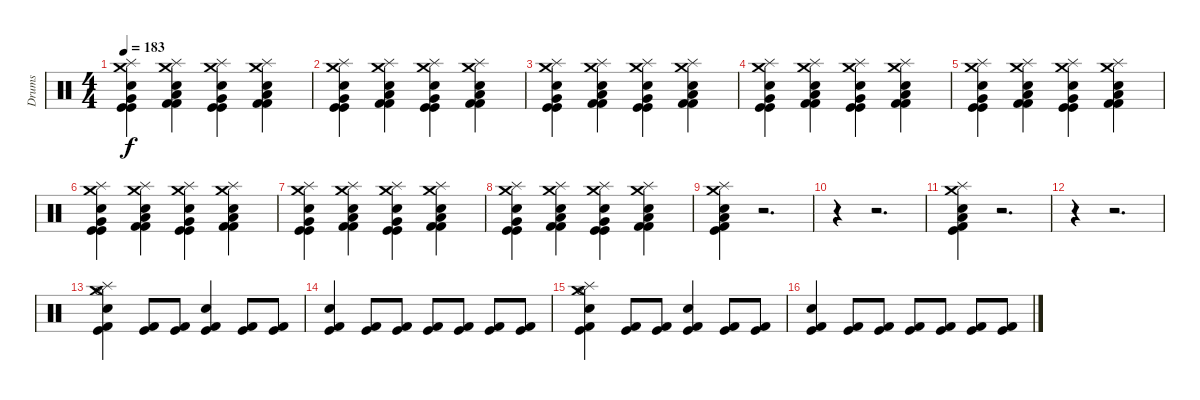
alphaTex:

\track ("Drums" "Drums") {instrument percussion}
\staff {score}
\articulation defaults
\ts (4 4)
\tempo 183
\clef neutral
\ks c
("Crash medium (hit)" "Kick (hit)" "Kick (hit)" "Electric Snare (hit)" "Very Low Tom (hit)" "Splash (hit)").4{dy f} ("Crash medium (hit)" "Kick (hit) 2" "Kick (hit) 2" "Electric Snare (hit)" "Low Tom (hit)" "Splash (hit)").4 ("Crash medium (hit)" "Kick (hit)" "Kick (hit)" "Electric Snare (hit)" "Very Low Tom (hit)" "Splash (hit)").4 ("Crash medium (hit)" "Kick (hit) 2" "Kick (hit) 2" "Electric Snare (hit)" "Low Tom (hit)" "Splash (hit)").4 |
("Crash medium (hit)" "Kick (hit)" "Kick (hit)" "Electric Snare (hit)" "Very Low Tom (hit)" "Splash (hit)").4 ("Crash medium (hit)" "Kick (hit) 2" "Kick (hit) 2" "Electric Snare (hit)" "Low Tom (hit)" "Splash (hit)").4 ("Crash medium (hit)" "Kick (hit)" "Kick (hit)" "Electric Snare (hit)" "Very Low Tom (hit)" "Splash (hit)").4 ("Crash medium (hit)" "Kick (hit) 2" "Kick (hit) 2" "Electric Snare (hit)" "Low Tom (hit)" "Splash (hit)").4 |
("Crash medium (hit)" "Kick (hit)" "Kick (hit)" "Electric Snare (hit)" "Very Low Tom (hit)" "Splash (hit)").4 ("Crash medium (hit)" "Kick (hit) 2" "Kick (hit) 2" "Electric Snare (hit)" "Low Tom (hit)" "Splash (hit)").4 ("Crash medium (hit)" "Kick (hit)" "Kick (hit)" "Electric Snare (hit)" "Very Low Tom (hit)" "Splash (hit)").4 ("Crash medium (hit)" "Kick (hit) 2" "Kick (hit) 2" "Electric Snare (hit)" "Low Tom (hit)" "Splash (hit)").4 |
("Crash medium (hit)" "Kick (hit)" "Kick (hit)" "Electric Snare (hit)" "Very Low Tom (hit)" "Splash (hit)").4 ("Crash medium (hit)" "Kick (hit) 2" "Kick (hit) 2" "Electric Snare (hit)" "Low Tom (hit)" "Splash (hit)").4 ("Crash medium (hit)" "Kick (hit)" "Kick (hit)" "Electric Snare (hit)" "Very Low Tom (hit)" "Splash (hit)").4 ("Crash medium (hit)" "Kick (hit) 2" "Kick (hit) 2" "Electric Snare (hit)" "Low Tom (hit)" "Splash (hit)").4 |
("Crash medium (hit)" "Kick (hit)" "Kick (hit)" "Electric Snare (hit)" "Very Low Tom (hit)" "Splash (hit)").4 ("Crash medium (hit)" "Kick (hit) 2" "Kick (hit) 2" "Electric Snare (hit)" "Low Tom (hit)" "Splash (hit)").4 ("Crash medium (hit)" "Kick (hit)" "Kick (hit)" "Electric Snare (hit)" "Very Low Tom (hit)" "Splash (hit)").4 ("Crash medium (hit)" "Kick (hit) 2" "Kick (hit) 2" "Electric Snare (hit)" "Low Tom (hit)" "Splash (hit)").4 |
("Crash medium (hit)" "Kick (hit)" "Kick (hit)" "Electric Snare (hit)" "Very Low Tom (hit)" "Splash (hit)").4 ("Crash medium (hit)" "Kick (hit) 2" "Kick (hit) 2" "Electric Snare (hit)" "Low Tom (hit)" "Splash (hit)").4 ("Crash medium (hit)" "Kick (hit)" "Kick (hit)" "Electric Snare (hit)" "Very Low Tom (hit)" "Splash (hit)").4 ("Crash medium (hit)" "Kick (hit) 2" "Kick (hit) 2" "Electric Snare (hit)" "Low Tom (hit)" "Splash (hit)").4 |
("Crash medium (hit)" "Kick (hit)" "Kick (hit)" "Electric Snare (hit)" "Very Low Tom (hit)" "Splash (hit)").4 ("Crash medium (hit)" "Kick (hit) 2" "Kick (hit) 2" "Electric Snare (hit)" "Low Tom (hit)" "Splash (hit)").4 ("Crash medium (hit)" "Kick (hit)" "Kick (hit)" "Electric Snare (hit)" "Very Low Tom (hit)" "Splash (hit)").4 ("Crash medium (hit)" "Kick (hit) 2" "Kick (hit) 2" "Electric Snare (hit)" "Low Tom (hit)" "Splash (hit)").4 |
("Crash medium (hit)" "Kick (hit)" "Kick (hit)" "Electric Snare (hit)" "Very Low Tom (hit)" "Splash (hit)").4 ("Crash medium (hit)" "Kick (hit) 2" "Kick (hit) 2" "Electric Snare (hit)" "Low Tom (hit)" "Splash (hit)").4 ("Crash medium (hit)" "Kick (hit)" "Kick (hit)" "Electric Snare (hit)" "Very Low Tom (hit)" "Splash (hit)").4 ("Crash medium (hit)" "Kick (hit) 2" "Kick (hit) 2" "Electric Snare (hit)" "Low Tom (hit)" "Splash (hit)").4 |
("Crash medium (hit)" "Kick (hit) 2" "Kick (hit)" "Electric Snare (hit)" "Low Tom (hit)" "Splash (hit)").4 r.2{d} |
r.4 r.2{d} |
("Crash medium (hit)" "Kick (hit) 2" "Kick (hit)" "Electric Snare (hit)" "Low Tom (hit)" "Splash (hit)").4 r.2{d} |
r.4 r.2{d} |
("Hi-Hat (open)" "Crash medium (hit)" "Splash (hit)" "Kick (hit)" "Kick (hit) 2" "Electric Snare (hit)").4 ("Kick (hit) 2" "Kick (hit)").8 ("Kick (hit) 2" "Kick (hit)").8 ("Kick (hit) 2" "Kick (hit)" "Electric Snare (hit)").4 ("Kick (hit) 2" "Kick (hit)").8 ("Kick (hit) 2" "Kick (hit)").8 |
("Kick (hit) 2" "Kick (hit)" "Electric Snare (hit)").4 ("Kick (hit) 2" "Kick (hit)").8 ("Kick (hit) 2" "Kick (hit)").8 ("Kick (hit) 2" "Kick (hit)").8 ("Kick (hit) 2" "Kick (hit)").8 ("Kick (hit) 2" "Kick (hit)").8 ("Kick (hit) 2" "Kick (hit)").8 |
("Hi-Hat (open)" "Crash medium (hit)" "Splash (hit)" "Kick (hit)" "Kick (hit) 2" "Electric Snare (hit)").4 ("Kick (hit) 2" "Kick (hit)").8 ("Kick (hit) 2" "Kick (hit)").8 ("Kick (hit) 2" "Kick (hit)" "Electric Snare (hit)").4 ("Kick (hit) 2" "Kick (hit)").8 ("Kick (hit) 2" "Kick (hit)").8 |
("Kick (hit) 2" "Kick (hit)" "Electric Snare (hit)").4 ("Kick (hit) 2" "Kick (hit)").8 ("Kick (hit) 2" "Kick (hit)").8 ("Kick (hit) 2" "Kick (hit)").8 ("Kick (hit) 2" "Kick (hit)").8 ("Kick (hit) 2" "Kick (hit)").8 ("Kick (hit) 2" "Kick (hit)").8
